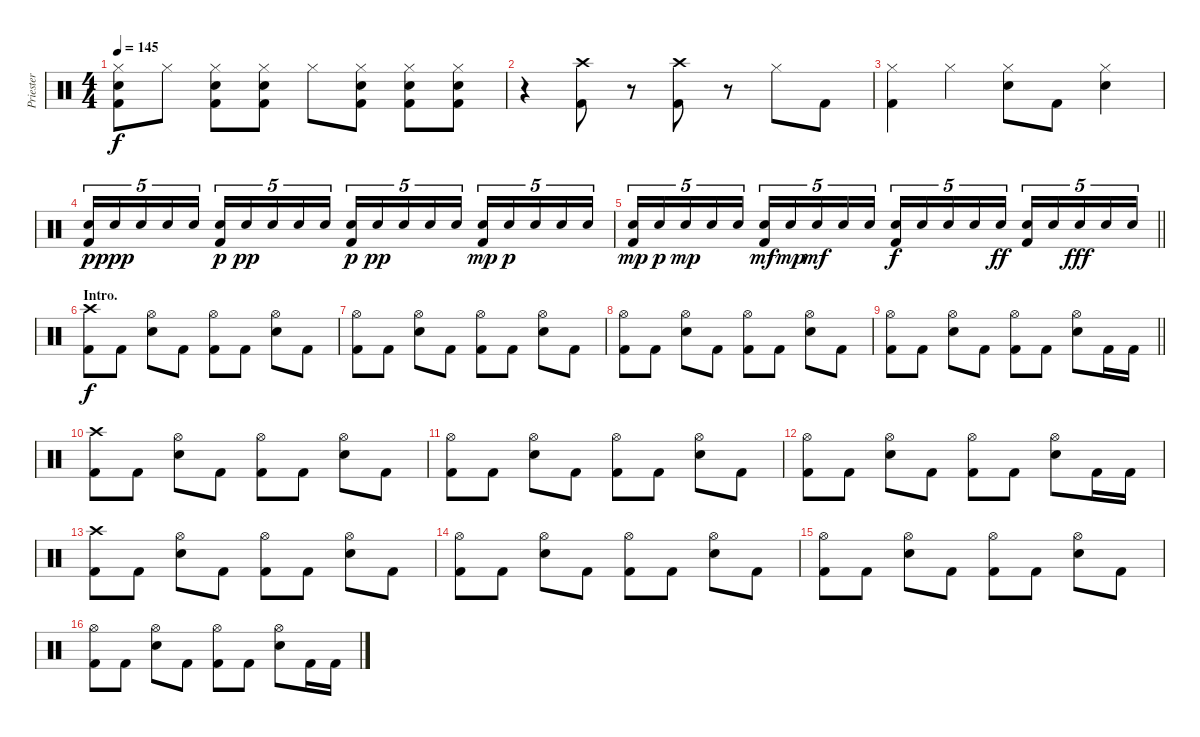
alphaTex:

\track ("Priester" "Priester") {instrument percussion}
\staff {score}
\articulation defaults
\ts (4 4)
\tempo 145
\clef neutral
\ks c
("Hi-Hat (closed)" "Electric Snare (hit)" "Kick (hit) 2").8{dy f} "Hi-Hat (closed)".8 ("Hi-Hat (closed)" "Electric Snare (hit)" "Kick (hit) 2").8 ("Hi-Hat (closed)" "Electric Snare (hit)" "Kick (hit) 2").8 "Hi-Hat (closed)".8 ("Hi-Hat (closed)" "Electric Snare (hit)" "Kick (hit) 2").8 ("Hi-Hat (closed)" "Electric Snare (hit)" "Kick (hit) 2").8 ("Hi-Hat (closed)" "Electric Snare (hit)" "Kick (hit) 2").8 |
r.4 ("Crash high (hit)" "Kick (hit) 2").8 r.8 ("Crash high (hit)" "Kick (hit) 2").8 r.8 "Hi-Hat (closed)".8 "Kick (hit) 2".8 |
("Hi-Hat (closed)" "Kick (hit) 2").4 "Hi-Hat (closed)".4 ("Hi-Hat (closed)" "Electric Snare (hit)").8 "Kick (hit) 2".8 ("Hi-Hat (closed)" "Electric Snare (hit)").4 |
("Electric Snare (hit)" "Kick (hit) 2").16{tu (5 4) dy p} "Electric Snare (hit)".16{tu (5 4) dy ppp} "Electric Snare (hit)".16{tu (5 4)} "Electric Snare (hit)".16{tu (5 4)} "Electric Snare (hit)".16{tu (5 4)} ("Electric Snare (hit)" "Kick (hit) 2").16{tu (5 4) dy p} "Electric Snare (hit)".16{tu (5 4) dy pp} "Electric Snare (hit)".16{tu (5 4)} "Electric Snare (hit)".16{tu (5 4)} "Electric Snare (hit)".16{tu (5 4)} ("Electric Snare (hit)" "Kick (hit) 2").16{tu (5 4) dy p} "Electric Snare (hit)".16{tu (5 4) dy pp} "Electric Snare (hit)".16{tu (5 4)} "Electric Snare (hit)".16{tu (5 4)} "Electric Snare (hit)".16{tu (5 4)} ("Electric Snare (hit)" "Kick (hit) 2").16{tu (5 4) dy mp} "Electric Snare (hit)".16{tu (5 4) dy p} "Electric Snare (hit)".16{tu (5 4)} "Electric Snare (hit)".16{tu (5 4)} "Electric Snare (hit)".16{tu (5 4)} |
\barLineRight lightlight
("Electric Snare (hit)" "Kick (hit) 2").16{tu (5 4) dy mp} "Electric Snare (hit)".16{tu (5 4) dy p} "Electric Snare (hit)".16{tu (5 4) dy mp} "Electric Snare (hit)".16{tu (5 4)} "Electric Snare (hit)".16{tu (5 4)} ("Electric Snare (hit)" "Kick (hit) 2").16{tu (5 4) dy mf} "Electric Snare (hit)".16{tu (5 4) dy mp} "Electric Snare (hit)".16{tu (5 4) dy mf} "Electric Snare (hit)".16{tu (5 4)} "Electric Snare (hit)".16{tu (5 4)} ("Electric Snare (hit)" "Kick (hit) 2").16{tu (5 4) dy f} "Electric Snare (hit)".16{tu (5 4)} "Electric Snare (hit)".16{tu (5 4)} "Electric Snare (hit)".16{tu (5 4)} "Electric Snare (hit)".16{tu (5 4) dy ff} ("Electric Snare (hit)" "Kick (hit) 2").16{tu (5 4)} "Electric Snare (hit)".16{tu (5 4)} "Electric Snare (hit)".16{tu (5 4) dy fff} "Electric Snare (hit)".16{tu (5 4)} "Electric Snare (hit)".16{tu (5 4)} |
\section ("" "Intro.")
("Crash high (hit)" "Kick (hit) 2").8{dy f} "Kick (hit) 2".8 ("Hi-Hat (open)" "Electric Snare (hit)").8 "Kick (hit) 2".8 ("Hi-Hat (open)" "Kick (hit) 2").8 "Kick (hit) 2".8 ("Hi-Hat (open)" "Electric Snare (hit)").8 "Kick (hit) 2".8 |
("Hi-Hat (open)" "Kick (hit) 2").8 "Kick (hit) 2".8 ("Hi-Hat (open)" "Electric Snare (hit)").8 "Kick (hit) 2".8 ("Hi-Hat (open)" "Kick (hit) 2").8 "Kick (hit) 2".8 ("Hi-Hat (open)" "Electric Snare (hit)").8 "Kick (hit) 2".8 |
("Hi-Hat (open)" "Kick (hit) 2").8 "Kick (hit) 2".8 ("Hi-Hat (open)" "Electric Snare (hit)").8 "Kick (hit) 2".8 ("Hi-Hat (open)" "Kick (hit) 2").8 "Kick (hit) 2".8 ("Hi-Hat (open)" "Electric Snare (hit)").8 "Kick (hit) 2".8 |
\barLineRight lightlight
("Hi-Hat (open)" "Kick (hit) 2").8 "Kick (hit) 2".8 ("Hi-Hat (open)" "Electric Snare (hit)").8 "Kick (hit) 2".8 ("Hi-Hat (open)" "Kick (hit) 2").8 "Kick (hit) 2".8 ("Hi-Hat (open)" "Electric Snare (hit)").8 "Kick (hit) 2".16 "Kick (hit) 2".16 |
("Crash high (hit)" "Kick (hit) 2").8 "Kick (hit) 2".8 ("Hi-Hat (open)" "Electric Snare (hit)").8 "Kick (hit) 2".8 ("Hi-Hat (open)" "Kick (hit) 2").8 "Kick (hit) 2".8 ("Hi-Hat (open)" "Electric Snare (hit)").8 "Kick (hit) 2".8 |
("Hi-Hat (open)" "Kick (hit) 2").8 "Kick (hit) 2".8 ("Hi-Hat (open)" "Electric Snare (hit)").8 "Kick (hit) 2".8 ("Hi-Hat (open)" "Kick (hit) 2").8 "Kick (hit) 2".8 ("Hi-Hat (open)" "Electric Snare (hit)").8 "Kick (hit) 2".8 |
("Hi-Hat (open)" "Kick (hit) 2").8 "Kick (hit) 2".8 ("Hi-Hat (open)" "Electric Snare (hit)").8 "Kick (hit) 2".8 ("Hi-Hat (open)" "Kick (hit) 2").8 "Kick (hit) 2".8 ("Hi-Hat (open)" "Electric Snare (hit)").8 "Kick (hit) 2".16 "Kick (hit) 2".16 |
("Crash high (hit)" "Kick (hit) 2").8 "Kick (hit) 2".8 ("Hi-Hat (open)" "Electric Snare (hit)").8 "Kick (hit) 2".8 ("Hi-Hat (open)" "Kick (hit) 2").8 "Kick (hit) 2".8 ("Hi-Hat (open)" "Electric Snare (hit)").8 "Kick (hit) 2".8 |
("Hi-Hat (open)" "Kick (hit) 2").8 "Kick (hit) 2".8 ("Hi-Hat (open)" "Electric Snare (hit)").8 "Kick (hit) 2".8 ("Hi-Hat (open)" "Kick (hit) 2").8 "Kick (hit) 2".8 ("Hi-Hat (open)" "Electric Snare (hit)").8 "Kick (hit) 2".8 |
("Hi-Hat (open)" "Kick (hit) 2").8 "Kick (hit) 2".8 ("Hi-Hat (open)" "Electric Snare (hit)").8 "Kick (hit) 2".8 ("Hi-Hat (open)" "Kick (hit) 2").8 "Kick (hit) 2".8 ("Hi-Hat (open)" "Electric Snare (hit)").8 "Kick (hit) 2".8 |
("Hi-Hat (open)" "Kick (hit) 2").8 "Kick (hit) 2".8 ("Hi-Hat (open)" "Electric Snare (hit)").8 "Kick (hit) 2".8 ("Hi-Hat (open)" "Kick (hit) 2").8 "Kick (hit) 2".8 ("Hi-Hat (open)" "Electric Snare (hit)").8 "Kick (hit) 2".16 "Kick (hit) 2".16
